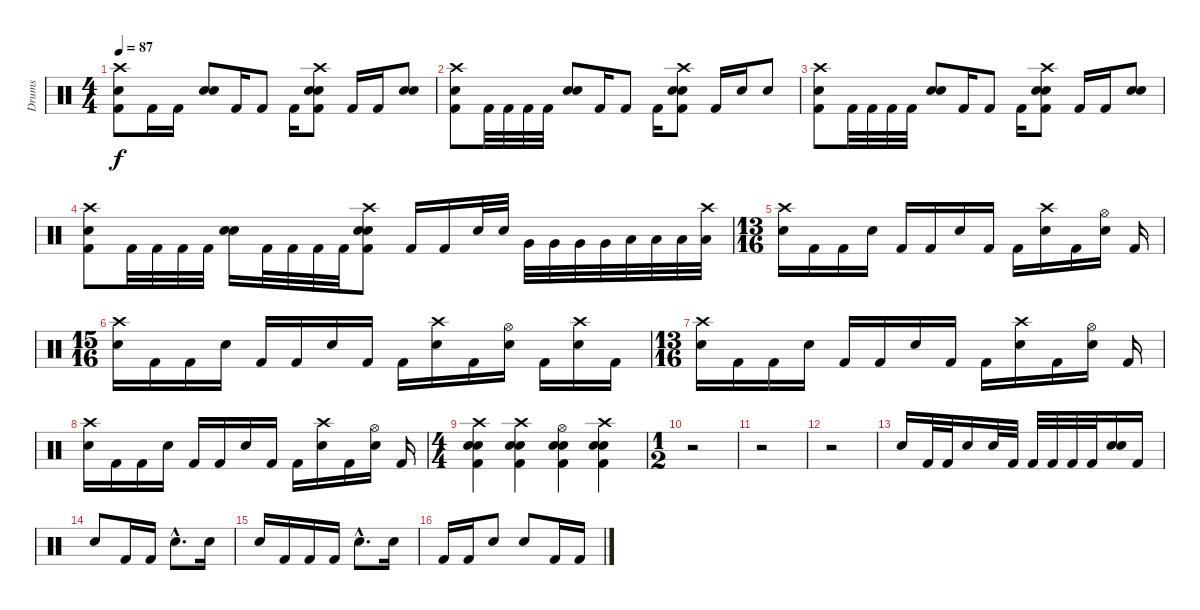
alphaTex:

\track ("Drums" "Drums") {instrument percussion}
\staff {score}
\articulation defaults
\ts (4 4)
\tempo 87
\clef neutral
\ks c
("Crash high (hit)" "Snare (hit) 2" "Kick (hit) 2").8{dy f} "Kick (hit) 2".16 "Kick (hit) 2".16 ("Electric Snare (hit)" "Snare (hit) 2").8 "Kick (hit) 2".16 "Kick (hit) 2".8 "Kick (hit) 2".16 ("Crash high (hit)" "Electric Snare (hit)" "Snare (hit) 2" "Kick (hit) 2").8 "Kick (hit) 2".16 "Kick (hit) 2".16 ("Electric Snare (hit)" "Snare (hit) 2").8 |
("Crash high (hit)" "Snare (hit) 2" "Kick (hit) 2").8 "Kick (hit) 2".32 "Kick (hit) 2".32 "Kick (hit) 2".32 "Kick (hit) 2".32 ("Electric Snare (hit)" "Snare (hit) 2").8 "Kick (hit) 2".16 "Kick (hit) 2".8 "Kick (hit) 2".16 ("Crash high (hit)" "Electric Snare (hit)" "Snare (hit) 2" "Kick (hit) 2").8 "Kick (hit) 2".16 "Snare (hit) 2".16 "Electric Snare (hit)".8 |
("Crash high (hit)" "Snare (hit) 2" "Kick (hit) 2").8 "Kick (hit) 2".32 "Kick (hit) 2".32 "Kick (hit) 2".32 "Kick (hit) 2".32 ("Electric Snare (hit)" "Snare (hit) 2").8 "Kick (hit) 2".16 "Kick (hit) 2".8 "Kick (hit) 2".16 ("Crash high (hit)" "Electric Snare (hit)" "Snare (hit) 2" "Kick (hit) 2").8 "Kick (hit) 2".16 "Kick (hit) 2".16 ("Electric Snare (hit)" "Snare (hit) 2").8 |
("Crash high (hit)" "Snare (hit) 2" "Kick (hit) 2").8 "Kick (hit) 2".32 "Kick (hit) 2".32 "Kick (hit) 2".32 "Kick (hit) 2".32 ("Electric Snare (hit)" "Snare (hit) 2").16 "Kick (hit) 2".32 "Kick (hit) 2".32 "Kick (hit) 2".32 "Kick (hit) 2".32 ("Crash high (hit)" "Electric Snare (hit)" "Snare (hit) 2" "Kick (hit) 2").8 "Kick (hit) 2".16 "Kick (hit) 2".16 "Snare (hit) 2".32 "Snare (hit) 2".32 "Very Low Tom (hit)".32 "Very Low Tom (hit)".32 "Very Low Tom (hit)".32 "Very Low Tom (hit)".32 "Low Floor Tom (hit)".32 "Low Floor Tom (hit)".32 "Low Floor Tom (hit)".32 ("Crash high (hit)" "Low Floor Tom (hit)").32 |
\ts (13 16)
("Crash high (hit)" "Snare (hit) 2").16 "Kick (hit) 2".16 "Kick (hit) 2".16 "Snare (hit) 2".16 "Kick (hit) 2".16 "Kick (hit) 2".16 "Snare (hit) 2".16 "Kick (hit) 2".16 "Kick (hit) 2".16 ("Crash high (hit)" "Snare (hit) 2").16 "Kick (hit) 2".16 ("Hi-Hat (open)" "Snare (hit) 2").16 "Kick (hit) 2".16 |
\ts (15 16)
("Crash high (hit)" "Snare (hit) 2").16 "Kick (hit) 2".16 "Kick (hit) 2".16 "Snare (hit) 2".16 "Kick (hit) 2".16 "Kick (hit) 2".16 "Snare (hit) 2".16 "Kick (hit) 2".16 "Kick (hit) 2".16 ("Crash high (hit)" "Snare (hit) 2").16 "Kick (hit) 2".16 ("Hi-Hat (open)" "Snare (hit) 2").16 "Kick (hit) 2".16 ("Crash high (hit)" "Snare (hit) 2").16 "Kick (hit) 2".16 |
\ts (13 16)
("Crash high (hit)" "Snare (hit) 2").16 "Kick (hit) 2".16 "Kick (hit) 2".16 "Snare (hit) 2".16 "Kick (hit) 2".16 "Kick (hit) 2".16 "Snare (hit) 2".16 "Kick (hit) 2".16 "Kick (hit) 2".16 ("Crash high (hit)" "Snare (hit) 2").16 "Kick (hit) 2".16 ("Hi-Hat (open)" "Snare (hit) 2").16 "Kick (hit) 2".16 |
("Crash high (hit)" "Snare (hit) 2").16 "Kick (hit) 2".16 "Kick (hit) 2".16 "Snare (hit) 2".16 "Kick (hit) 2".16 "Kick (hit) 2".16 "Snare (hit) 2".16 "Kick (hit) 2".16 "Kick (hit) 2".16 ("Crash high (hit)" "Snare (hit) 2").16 "Kick (hit) 2".16 ("Hi-Hat (open)" "Snare (hit) 2").16 "Kick (hit) 2".16 |
\ts (4 4)
("Crash high (hit)" "Snare (hit) 2" "Electric Snare (hit)" "Kick (hit) 2").4 ("Crash high (hit)" "Snare (hit) 2" "Electric Snare (hit)" "Kick (hit) 2").4 ("Hi-Hat (open)" "Snare (hit) 2" "Electric Snare (hit)" "Kick (hit) 2").4 ("Crash high (hit)" "Snare (hit) 2" "Electric Snare (hit)" "Kick (hit) 2").4 |
\ts (1 2)
r.2 |
r.2 |
r.2 |
"Electric Snare (hit)".16 "Kick (hit) 2".32 "Kick (hit) 2".32 "Electric Snare (hit)".16 "Snare (hit) 2".32 "Kick (hit) 2".32 "Kick (hit) 2".32 "Kick (hit) 2".32 "Kick (hit) 2".32 "Kick (hit) 2".32 ("Snare (hit) 2" "Electric Snare (hit)").16 "Kick (hit) 2".16 |
"Snare (hit) 2".8 "Kick (hit) 2".16 "Kick (hit) 2".16 "Electric Snare (hit)"{hac}.8{d} "Electric Snare (hit)".16 |
"Snare (hit) 2".16 "Kick (hit) 2".16 "Kick (hit) 2".16 "Kick (hit) 2".16 "Electric Snare (hit)"{hac}.8{d} "Electric Snare (hit)".16 |
"Kick (hit) 2".16 "Kick (hit) 2".16 "Electric Snare (hit)".8 "Electric Snare (hit)".8 "Kick (hit) 2".16 "Kick (hit) 2".16
